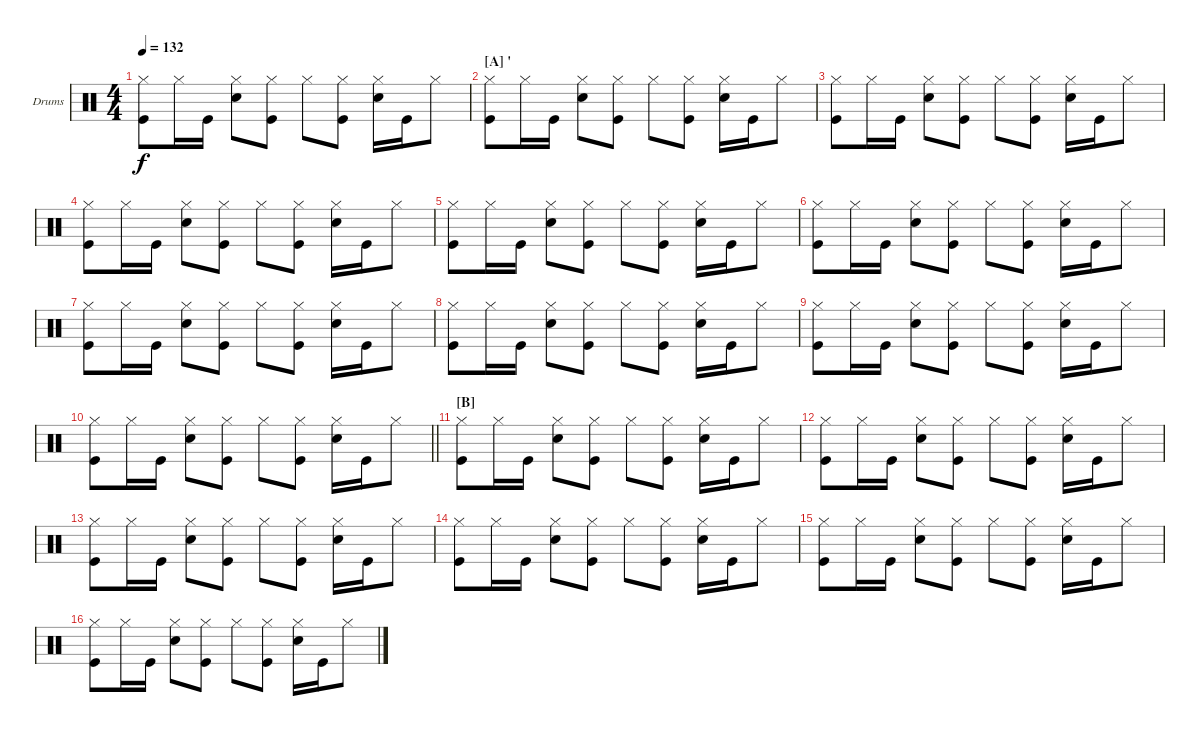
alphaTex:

\bracketExtendMode groupsimilarinstruments
\firstSystemTrackNameOrientation horizontal
\otherSystemsTrackNameOrientation horizontal
\track ("Fabrizio Moretti" "Drums") {instrument percussion}
\staff {score}
\articulation defaults
\ts (4 4)
\tempo 132
\clef neutral
\ks c
("Hi-Hat (closed)" "Kick (hit)").8{dy f} "Hi-Hat (closed)".16 "Kick (hit)".16 ("Hi-Hat (closed)" "Snare (hit) 2").8 ("Hi-Hat (closed)" "Kick (hit)").8 "Hi-Hat (closed)".8 ("Hi-Hat (closed)" "Kick (hit)").8 ("Hi-Hat (closed)" "Snare (hit) 2").16 "Kick (hit)".16 "Hi-Hat (closed)".8 |
\section ("A" "'")
("Hi-Hat (closed)" "Kick (hit)").8 "Hi-Hat (closed)".16 "Kick (hit)".16 ("Hi-Hat (closed)" "Snare (hit) 2").8 ("Hi-Hat (closed)" "Kick (hit)").8 "Hi-Hat (closed)".8 ("Hi-Hat (closed)" "Kick (hit)").8 ("Hi-Hat (closed)" "Snare (hit) 2").16 "Kick (hit)".16 "Hi-Hat (closed)".8 |
("Hi-Hat (closed)" "Kick (hit)").8 "Hi-Hat (closed)".16 "Kick (hit)".16 ("Hi-Hat (closed)" "Snare (hit) 2").8 ("Hi-Hat (closed)" "Kick (hit)").8 "Hi-Hat (closed)".8 ("Hi-Hat (closed)" "Kick (hit)").8 ("Hi-Hat (closed)" "Snare (hit) 2").16 "Kick (hit)".16 "Hi-Hat (closed)".8 |
("Hi-Hat (closed)" "Kick (hit)").8 "Hi-Hat (closed)".16 "Kick (hit)".16 ("Hi-Hat (closed)" "Snare (hit) 2").8 ("Hi-Hat (closed)" "Kick (hit)").8 "Hi-Hat (closed)".8 ("Hi-Hat (closed)" "Kick (hit)").8 ("Hi-Hat (closed)" "Snare (hit) 2").16 "Kick (hit)".16 "Hi-Hat (closed)".8 |
("Hi-Hat (closed)" "Kick (hit)").8 "Hi-Hat (closed)".16 "Kick (hit)".16 ("Hi-Hat (closed)" "Snare (hit) 2").8 ("Hi-Hat (closed)" "Kick (hit)").8 "Hi-Hat (closed)".8 ("Hi-Hat (closed)" "Kick (hit)").8 ("Hi-Hat (closed)" "Snare (hit) 2").16 "Kick (hit)".16 "Hi-Hat (closed)".8 |
("Hi-Hat (closed)" "Kick (hit)").8 "Hi-Hat (closed)".16 "Kick (hit)".16 ("Hi-Hat (closed)" "Snare (hit) 2").8 ("Hi-Hat (closed)" "Kick (hit)").8 "Hi-Hat (closed)".8 ("Hi-Hat (closed)" "Kick (hit)").8 ("Hi-Hat (closed)" "Snare (hit) 2").16 "Kick (hit)".16 "Hi-Hat (closed)".8 |
("Hi-Hat (closed)" "Kick (hit)").8 "Hi-Hat (closed)".16 "Kick (hit)".16 ("Hi-Hat (closed)" "Snare (hit) 2").8 ("Hi-Hat (closed)" "Kick (hit)").8 "Hi-Hat (closed)".8 ("Hi-Hat (closed)" "Kick (hit)").8 ("Hi-Hat (closed)" "Snare (hit) 2").16 "Kick (hit)".16 "Hi-Hat (closed)".8 |
("Hi-Hat (closed)" "Kick (hit)").8 "Hi-Hat (closed)".16 "Kick (hit)".16 ("Hi-Hat (closed)" "Snare (hit) 2").8 ("Hi-Hat (closed)" "Kick (hit)").8 "Hi-Hat (closed)".8 ("Hi-Hat (closed)" "Kick (hit)").8 ("Hi-Hat (closed)" "Snare (hit) 2").16 "Kick (hit)".16 "Hi-Hat (closed)".8 |
("Hi-Hat (closed)" "Kick (hit)").8 "Hi-Hat (closed)".16 "Kick (hit)".16 ("Hi-Hat (closed)" "Snare (hit) 2").8 ("Hi-Hat (closed)" "Kick (hit)").8 "Hi-Hat (closed)".8 ("Hi-Hat (closed)" "Kick (hit)").8 ("Hi-Hat (closed)" "Snare (hit) 2").16 "Kick (hit)".16 "Hi-Hat (closed)".8 |
\barLineRight lightlight
("Hi-Hat (closed)" "Kick (hit)").8 "Hi-Hat (closed)".16 "Kick (hit)".16 ("Hi-Hat (closed)" "Snare (hit) 2").8 ("Hi-Hat (closed)" "Kick (hit)").8 "Hi-Hat (closed)".8 ("Hi-Hat (closed)" "Kick (hit)").8 ("Hi-Hat (closed)" "Snare (hit) 2").16 "Kick (hit)".16 "Hi-Hat (closed)".8 |
\section ("B" "")
("Hi-Hat (closed)" "Kick (hit)").8 "Hi-Hat (closed)".16 "Kick (hit)".16 ("Hi-Hat (closed)" "Snare (hit) 2").8 ("Hi-Hat (closed)" "Kick (hit)").8 "Hi-Hat (closed)".8 ("Hi-Hat (closed)" "Kick (hit)").8 ("Hi-Hat (closed)" "Snare (hit) 2").16 "Kick (hit)".16 "Hi-Hat (closed)".8 |
("Hi-Hat (closed)" "Kick (hit)").8 "Hi-Hat (closed)".16 "Kick (hit)".16 ("Hi-Hat (closed)" "Snare (hit) 2").8 ("Hi-Hat (closed)" "Kick (hit)").8 "Hi-Hat (closed)".8 ("Hi-Hat (closed)" "Kick (hit)").8 ("Hi-Hat (closed)" "Snare (hit) 2").16 "Kick (hit)".16 "Hi-Hat (closed)".8 |
("Hi-Hat (closed)" "Kick (hit)").8 "Hi-Hat (closed)".16 "Kick (hit)".16 ("Hi-Hat (closed)" "Snare (hit) 2").8 ("Hi-Hat (closed)" "Kick (hit)").8 "Hi-Hat (closed)".8 ("Hi-Hat (closed)" "Kick (hit)").8 ("Hi-Hat (closed)" "Snare (hit) 2").16 "Kick (hit)".16 "Hi-Hat (closed)".8 |
("Hi-Hat (closed)" "Kick (hit)").8 "Hi-Hat (closed)".16 "Kick (hit)".16 ("Hi-Hat (closed)" "Snare (hit) 2").8 ("Hi-Hat (closed)" "Kick (hit)").8 "Hi-Hat (closed)".8 ("Hi-Hat (closed)" "Kick (hit)").8 ("Hi-Hat (closed)" "Snare (hit) 2").16 "Kick (hit)".16 "Hi-Hat (closed)".8 |
("Hi-Hat (closed)" "Kick (hit)").8 "Hi-Hat (closed)".16 "Kick (hit)".16 ("Hi-Hat (closed)" "Snare (hit) 2").8 ("Hi-Hat (closed)" "Kick (hit)").8 "Hi-Hat (closed)".8 ("Hi-Hat (closed)" "Kick (hit)").8 ("Hi-Hat (closed)" "Snare (hit) 2").16 "Kick (hit)".16 "Hi-Hat (closed)".8 |
("Hi-Hat (closed)" "Kick (hit)").8 "Hi-Hat (closed)".16 "Kick (hit)".16 ("Hi-Hat (closed)" "Snare (hit) 2").8 ("Hi-Hat (closed)" "Kick (hit)").8 "Hi-Hat (closed)".8 ("Hi-Hat (closed)" "Kick (hit)").8 ("Hi-Hat (closed)" "Snare (hit) 2").16 "Kick (hit)".16 "Hi-Hat (closed)".8
